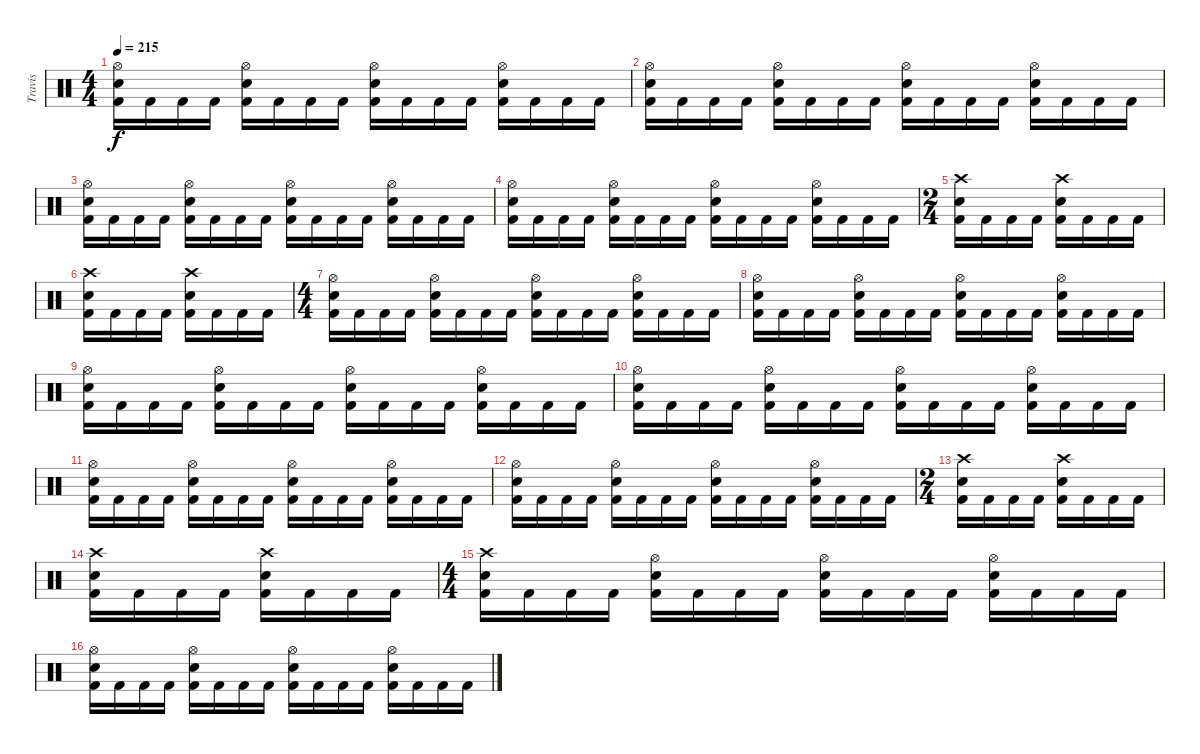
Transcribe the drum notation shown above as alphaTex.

\track ("Travis" "Travis") {instrument percussion}
\staff {score}
\articulation defaults
\ts (4 4)
\tempo 215
\clef neutral
\ks c
("Hi-Hat (open)" "Snare (hit) 2" "Kick (hit) 2").16{dy f} "Kick (hit) 2".16 "Kick (hit) 2".16 "Kick (hit) 2".16 ("Hi-Hat (open)" "Snare (hit) 2" "Kick (hit) 2").16 "Kick (hit) 2".16 "Kick (hit) 2".16 "Kick (hit) 2".16 ("Hi-Hat (open)" "Snare (hit) 2" "Kick (hit) 2").16 "Kick (hit) 2".16 "Kick (hit) 2".16 "Kick (hit) 2".16 ("Hi-Hat (open)" "Snare (hit) 2" "Kick (hit) 2").16 "Kick (hit) 2".16 "Kick (hit) 2".16 "Kick (hit) 2".16 |
("Hi-Hat (open)" "Snare (hit) 2" "Kick (hit) 2").16 "Kick (hit) 2".16 "Kick (hit) 2".16 "Kick (hit) 2".16 ("Hi-Hat (open)" "Snare (hit) 2" "Kick (hit) 2").16 "Kick (hit) 2".16 "Kick (hit) 2".16 "Kick (hit) 2".16 ("Hi-Hat (open)" "Snare (hit) 2" "Kick (hit) 2").16 "Kick (hit) 2".16 "Kick (hit) 2".16 "Kick (hit) 2".16 ("Hi-Hat (open)" "Snare (hit) 2" "Kick (hit) 2").16 "Kick (hit) 2".16 "Kick (hit) 2".16 "Kick (hit) 2".16 |
("Hi-Hat (open)" "Snare (hit) 2" "Kick (hit) 2").16 "Kick (hit) 2".16 "Kick (hit) 2".16 "Kick (hit) 2".16 ("Hi-Hat (open)" "Snare (hit) 2" "Kick (hit) 2").16 "Kick (hit) 2".16 "Kick (hit) 2".16 "Kick (hit) 2".16 ("Hi-Hat (open)" "Snare (hit) 2" "Kick (hit) 2").16 "Kick (hit) 2".16 "Kick (hit) 2".16 "Kick (hit) 2".16 ("Hi-Hat (open)" "Snare (hit) 2" "Kick (hit) 2").16 "Kick (hit) 2".16 "Kick (hit) 2".16 "Kick (hit) 2".16 |
("Hi-Hat (open)" "Snare (hit) 2" "Kick (hit) 2").16 "Kick (hit) 2".16 "Kick (hit) 2".16 "Kick (hit) 2".16 ("Hi-Hat (open)" "Snare (hit) 2" "Kick (hit) 2").16 "Kick (hit) 2".16 "Kick (hit) 2".16 "Kick (hit) 2".16 ("Hi-Hat (open)" "Snare (hit) 2" "Kick (hit) 2").16 "Kick (hit) 2".16 "Kick (hit) 2".16 "Kick (hit) 2".16 ("Hi-Hat (open)" "Snare (hit) 2" "Kick (hit) 2").16 "Kick (hit) 2".16 "Kick (hit) 2".16 "Kick (hit) 2".16 |
\ts (2 4)
("Crash high (hit)" "Snare (hit) 2" "Kick (hit) 2").16 "Kick (hit) 2".16 "Kick (hit) 2".16 "Kick (hit) 2".16 ("Crash high (hit)" "Snare (hit) 2" "Kick (hit) 2").16 "Kick (hit) 2".16 "Kick (hit) 2".16 "Kick (hit) 2".16 |
("Crash high (hit)" "Snare (hit) 2" "Kick (hit) 2").16 "Kick (hit) 2".16 "Kick (hit) 2".16 "Kick (hit) 2".16 ("Crash high (hit)" "Snare (hit) 2" "Kick (hit) 2").16 "Kick (hit) 2".16 "Kick (hit) 2".16 "Kick (hit) 2".16 |
\ts (4 4)
("Hi-Hat (open)" "Snare (hit) 2" "Kick (hit) 2").16 "Kick (hit) 2".16 "Kick (hit) 2".16 "Kick (hit) 2".16 ("Hi-Hat (open)" "Snare (hit) 2" "Kick (hit) 2").16 "Kick (hit) 2".16 "Kick (hit) 2".16 "Kick (hit) 2".16 ("Hi-Hat (open)" "Snare (hit) 2" "Kick (hit) 2").16 "Kick (hit) 2".16 "Kick (hit) 2".16 "Kick (hit) 2".16 ("Hi-Hat (open)" "Snare (hit) 2" "Kick (hit) 2").16 "Kick (hit) 2".16 "Kick (hit) 2".16 "Kick (hit) 2".16 |
("Hi-Hat (open)" "Snare (hit) 2" "Kick (hit) 2").16 "Kick (hit) 2".16 "Kick (hit) 2".16 "Kick (hit) 2".16 ("Hi-Hat (open)" "Snare (hit) 2" "Kick (hit) 2").16 "Kick (hit) 2".16 "Kick (hit) 2".16 "Kick (hit) 2".16 ("Hi-Hat (open)" "Snare (hit) 2" "Kick (hit) 2").16 "Kick (hit) 2".16 "Kick (hit) 2".16 "Kick (hit) 2".16 ("Hi-Hat (open)" "Snare (hit) 2" "Kick (hit) 2").16 "Kick (hit) 2".16 "Kick (hit) 2".16 "Kick (hit) 2".16 |
("Hi-Hat (open)" "Snare (hit) 2" "Kick (hit) 2").16 "Kick (hit) 2".16 "Kick (hit) 2".16 "Kick (hit) 2".16 ("Hi-Hat (open)" "Snare (hit) 2" "Kick (hit) 2").16 "Kick (hit) 2".16 "Kick (hit) 2".16 "Kick (hit) 2".16 ("Hi-Hat (open)" "Snare (hit) 2" "Kick (hit) 2").16 "Kick (hit) 2".16 "Kick (hit) 2".16 "Kick (hit) 2".16 ("Hi-Hat (open)" "Snare (hit) 2" "Kick (hit) 2").16 "Kick (hit) 2".16 "Kick (hit) 2".16 "Kick (hit) 2".16 |
("Hi-Hat (open)" "Snare (hit) 2" "Kick (hit) 2").16 "Kick (hit) 2".16 "Kick (hit) 2".16 "Kick (hit) 2".16 ("Hi-Hat (open)" "Snare (hit) 2" "Kick (hit) 2").16 "Kick (hit) 2".16 "Kick (hit) 2".16 "Kick (hit) 2".16 ("Hi-Hat (open)" "Snare (hit) 2" "Kick (hit) 2").16 "Kick (hit) 2".16 "Kick (hit) 2".16 "Kick (hit) 2".16 ("Hi-Hat (open)" "Snare (hit) 2" "Kick (hit) 2").16 "Kick (hit) 2".16 "Kick (hit) 2".16 "Kick (hit) 2".16 |
("Hi-Hat (open)" "Snare (hit) 2" "Kick (hit) 2").16 "Kick (hit) 2".16 "Kick (hit) 2".16 "Kick (hit) 2".16 ("Hi-Hat (open)" "Snare (hit) 2" "Kick (hit) 2").16 "Kick (hit) 2".16 "Kick (hit) 2".16 "Kick (hit) 2".16 ("Hi-Hat (open)" "Snare (hit) 2" "Kick (hit) 2").16 "Kick (hit) 2".16 "Kick (hit) 2".16 "Kick (hit) 2".16 ("Hi-Hat (open)" "Snare (hit) 2" "Kick (hit) 2").16 "Kick (hit) 2".16 "Kick (hit) 2".16 "Kick (hit) 2".16 |
("Hi-Hat (open)" "Snare (hit) 2" "Kick (hit) 2").16 "Kick (hit) 2".16 "Kick (hit) 2".16 "Kick (hit) 2".16 ("Hi-Hat (open)" "Snare (hit) 2" "Kick (hit) 2").16 "Kick (hit) 2".16 "Kick (hit) 2".16 "Kick (hit) 2".16 ("Hi-Hat (open)" "Snare (hit) 2" "Kick (hit) 2").16 "Kick (hit) 2".16 "Kick (hit) 2".16 "Kick (hit) 2".16 ("Hi-Hat (open)" "Snare (hit) 2" "Kick (hit) 2").16 "Kick (hit) 2".16 "Kick (hit) 2".16 "Kick (hit) 2".16 |
\ts (2 4)
("Crash high (hit)" "Snare (hit) 2" "Kick (hit) 2").16 "Kick (hit) 2".16 "Kick (hit) 2".16 "Kick (hit) 2".16 ("Crash high (hit)" "Snare (hit) 2" "Kick (hit) 2").16 "Kick (hit) 2".16 "Kick (hit) 2".16 "Kick (hit) 2".16 |
("Crash high (hit)" "Snare (hit) 2" "Kick (hit) 2").16 "Kick (hit) 2".16 "Kick (hit) 2".16 "Kick (hit) 2".16 ("Crash high (hit)" "Snare (hit) 2" "Kick (hit) 2").16 "Kick (hit) 2".16 "Kick (hit) 2".16 "Kick (hit) 2".16 |
\ts (4 4)
("Crash high (hit)" "Snare (hit) 2" "Kick (hit) 2").16 "Kick (hit) 2".16 "Kick (hit) 2".16 "Kick (hit) 2".16 ("Hi-Hat (open)" "Snare (hit) 2" "Kick (hit) 2").16 "Kick (hit) 2".16 "Kick (hit) 2".16 "Kick (hit) 2".16 ("Hi-Hat (open)" "Snare (hit) 2" "Kick (hit) 2").16 "Kick (hit) 2".16 "Kick (hit) 2".16 "Kick (hit) 2".16 ("Hi-Hat (open)" "Snare (hit) 2" "Kick (hit) 2").16 "Kick (hit) 2".16 "Kick (hit) 2".16 "Kick (hit) 2".16 |
("Hi-Hat (open)" "Snare (hit) 2" "Kick (hit) 2").16 "Kick (hit) 2".16 "Kick (hit) 2".16 "Kick (hit) 2".16 ("Hi-Hat (open)" "Snare (hit) 2" "Kick (hit) 2").16 "Kick (hit) 2".16 "Kick (hit) 2".16 "Kick (hit) 2".16 ("Hi-Hat (open)" "Snare (hit) 2" "Kick (hit) 2").16 "Kick (hit) 2".16 "Kick (hit) 2".16 "Kick (hit) 2".16 ("Hi-Hat (open)" "Snare (hit) 2" "Kick (hit) 2").16 "Kick (hit) 2".16 "Kick (hit) 2".16 "Kick (hit) 2".16
